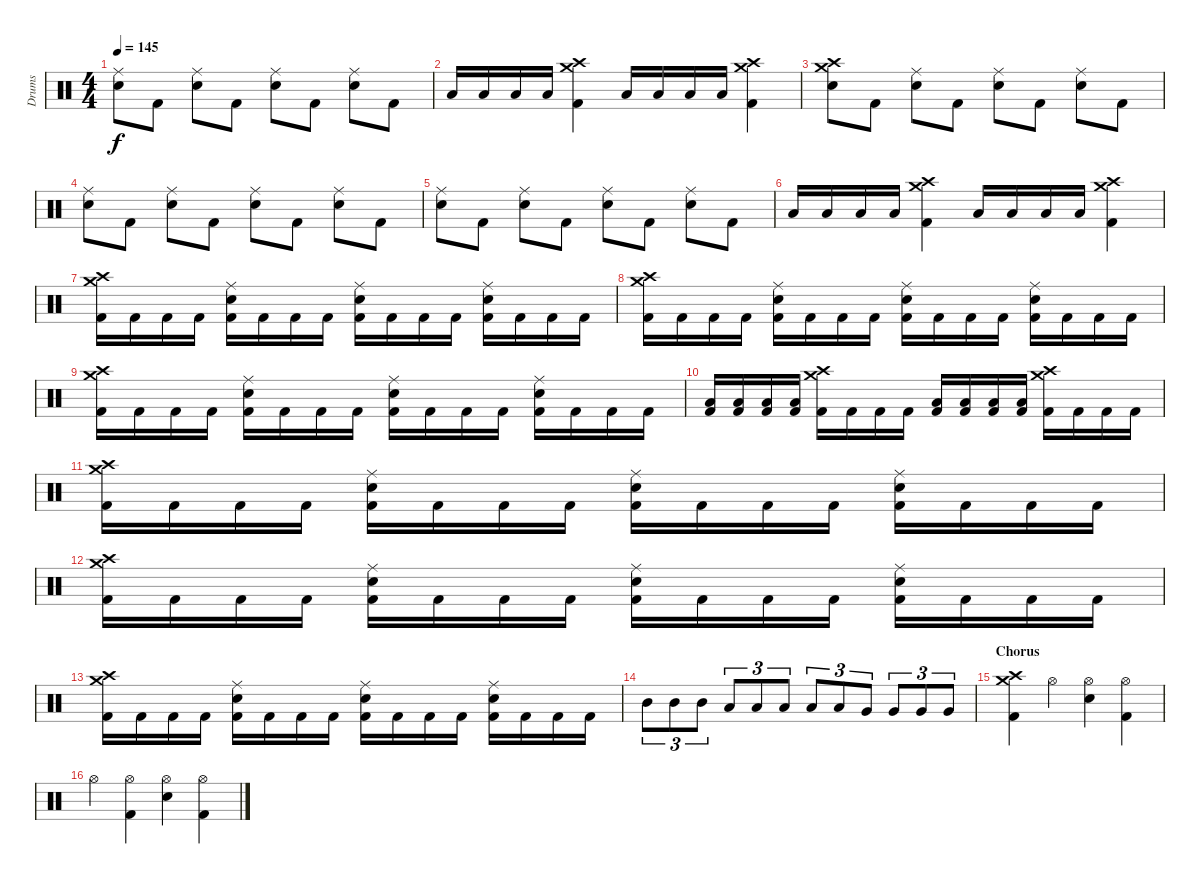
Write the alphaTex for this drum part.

\track ("Drums" "Drums") {instrument percussion}
\staff {score}
\articulation defaults
\ts (4 4)
\tempo 145
\clef neutral
\ks c
("Ride (middle)" "Snare (hit) 2").8{dy f} "Kick (hit) 2".8 ("Ride (middle)" "Snare (hit) 2").8 "Kick (hit) 2".8 ("Ride (middle)" "Snare (hit) 2").8 "Kick (hit) 2".8 ("Ride (middle)" "Snare (hit) 2").8 "Kick (hit) 2".8 |
"Low Tom (hit)".16 "Low Tom (hit)".16 "Low Tom (hit)".16 "Low Tom (hit)".16 ("Crash high (hit)" "Crash medium (hit)" "Kick (hit) 2").4 "Low Tom (hit)".16 "Low Tom (hit)".16 "Low Tom (hit)".16 "Low Tom (hit)".16 ("Crash medium (hit)" "Crash high (hit)" "Kick (hit) 2").4 |
("Crash medium (hit)" "Snare (hit) 2" "Crash high (hit)").8 "Kick (hit) 2".8 ("Ride (middle)" "Snare (hit) 2").8 "Kick (hit) 2".8 ("Ride (middle)" "Snare (hit) 2").8 "Kick (hit) 2".8 ("Ride (middle)" "Snare (hit) 2").8 "Kick (hit) 2".8 |
("Ride (middle)" "Snare (hit) 2").8 "Kick (hit) 2".8 ("Ride (middle)" "Snare (hit) 2").8 "Kick (hit) 2".8 ("Ride (middle)" "Snare (hit) 2").8 "Kick (hit) 2".8 ("Ride (middle)" "Snare (hit) 2").8 "Kick (hit) 2".8 |
("Ride (middle)" "Snare (hit) 2").8 "Kick (hit) 2".8 ("Ride (middle)" "Snare (hit) 2").8 "Kick (hit) 2".8 ("Ride (middle)" "Snare (hit) 2").8 "Kick (hit) 2".8 ("Ride (middle)" "Snare (hit) 2").8 "Kick (hit) 2".8 |
"Low Tom (hit)".16 "Low Tom (hit)".16 "Low Tom (hit)".16 "Low Tom (hit)".16 ("Crash high (hit)" "Crash medium (hit)" "Kick (hit) 2").4 "Low Tom (hit)".16 "Low Tom (hit)".16 "Low Tom (hit)".16 "Low Tom (hit)".16 ("Crash medium (hit)" "Crash high (hit)" "Kick (hit) 2").4 |
("Crash high (hit)" "Crash medium (hit)" "Kick (hit) 2").16 "Kick (hit) 2".16 "Kick (hit) 2".16 "Kick (hit) 2".16 ("Ride (middle)" "Snare (hit) 2" "Kick (hit) 2").16 "Kick (hit) 2".16 "Kick (hit) 2".16 "Kick (hit) 2".16 ("Ride (middle)" "Snare (hit) 2" "Kick (hit) 2").16 "Kick (hit) 2".16 "Kick (hit) 2".16 "Kick (hit) 2".16 ("Ride (middle)" "Snare (hit) 2" "Kick (hit) 2").16 "Kick (hit) 2".16 "Kick (hit) 2".16 "Kick (hit) 2".16 |
("Crash high (hit)" "Crash medium (hit)" "Kick (hit) 2").16 "Kick (hit) 2".16 "Kick (hit) 2".16 "Kick (hit) 2".16 ("Ride (middle)" "Snare (hit) 2" "Kick (hit) 2").16 "Kick (hit) 2".16 "Kick (hit) 2".16 "Kick (hit) 2".16 ("Ride (middle)" "Snare (hit) 2" "Kick (hit) 2").16 "Kick (hit) 2".16 "Kick (hit) 2".16 "Kick (hit) 2".16 ("Ride (middle)" "Snare (hit) 2" "Kick (hit) 2").16 "Kick (hit) 2".16 "Kick (hit) 2".16 "Kick (hit) 2".16 |
("Crash high (hit)" "Crash medium (hit)" "Kick (hit) 2").16 "Kick (hit) 2".16 "Kick (hit) 2".16 "Kick (hit) 2".16 ("Ride (middle)" "Snare (hit) 2" "Kick (hit) 2").16 "Kick (hit) 2".16 "Kick (hit) 2".16 "Kick (hit) 2".16 ("Ride (middle)" "Snare (hit) 2" "Kick (hit) 2").16 "Kick (hit) 2".16 "Kick (hit) 2".16 "Kick (hit) 2".16 ("Ride (middle)" "Snare (hit) 2" "Kick (hit) 2").16 "Kick (hit) 2".16 "Kick (hit) 2".16 "Kick (hit) 2".16 |
("Low Tom (hit)" "Kick (hit) 2").16 ("Low Tom (hit)" "Kick (hit) 2").16 ("Low Tom (hit)" "Kick (hit) 2").16 ("Low Tom (hit)" "Kick (hit) 2").16 ("Crash high (hit)" "Crash medium (hit)" "Kick (hit) 2").16 "Kick (hit) 2".16 "Kick (hit) 2".16 "Kick (hit) 2".16 ("Low Tom (hit)" "Kick (hit) 2").16 ("Low Tom (hit)" "Kick (hit) 2").16 ("Low Tom (hit)" "Kick (hit) 2").16 ("Low Tom (hit)" "Kick (hit) 2").16 ("Crash medium (hit)" "Crash high (hit)" "Kick (hit) 2").16 "Kick (hit) 2".16 "Kick (hit) 2".16 "Kick (hit) 2".16 |
("Crash high (hit)" "Crash medium (hit)" "Kick (hit) 2").16 "Kick (hit) 2".16 "Kick (hit) 2".16 "Kick (hit) 2".16 ("Ride (middle)" "Snare (hit) 2" "Kick (hit) 2").16 "Kick (hit) 2".16 "Kick (hit) 2".16 "Kick (hit) 2".16 ("Ride (middle)" "Snare (hit) 2" "Kick (hit) 2").16 "Kick (hit) 2".16 "Kick (hit) 2".16 "Kick (hit) 2".16 ("Ride (middle)" "Snare (hit) 2" "Kick (hit) 2").16 "Kick (hit) 2".16 "Kick (hit) 2".16 "Kick (hit) 2".16 |
("Crash high (hit)" "Crash medium (hit)" "Kick (hit) 2").16 "Kick (hit) 2".16 "Kick (hit) 2".16 "Kick (hit) 2".16 ("Ride (middle)" "Snare (hit) 2" "Kick (hit) 2").16 "Kick (hit) 2".16 "Kick (hit) 2".16 "Kick (hit) 2".16 ("Ride (middle)" "Snare (hit) 2" "Kick (hit) 2").16 "Kick (hit) 2".16 "Kick (hit) 2".16 "Kick (hit) 2".16 ("Ride (middle)" "Snare (hit) 2" "Kick (hit) 2").16 "Kick (hit) 2".16 "Kick (hit) 2".16 "Kick (hit) 2".16 |
("Crash high (hit)" "Crash medium (hit)" "Kick (hit) 2").16 "Kick (hit) 2".16 "Kick (hit) 2".16 "Kick (hit) 2".16 ("Ride (middle)" "Snare (hit) 2" "Kick (hit) 2").16 "Kick (hit) 2".16 "Kick (hit) 2".16 "Kick (hit) 2".16 ("Ride (middle)" "Snare (hit) 2" "Kick (hit) 2").16 "Kick (hit) 2".16 "Kick (hit) 2".16 "Kick (hit) 2".16 ("Ride (middle)" "Snare (hit) 2" "Kick (hit) 2").16 "Kick (hit) 2".16 "Kick (hit) 2".16 "Kick (hit) 2".16 |
"Mid Tom (hit)".8{tu (3 2)} "Mid Tom (hit)".8{tu (3 2)} "Mid Tom (hit)".8{tu (3 2)} "Low Tom (hit)".8{tu (3 2)} "Low Tom (hit)".8{tu (3 2)} "Low Tom (hit)".8{tu (3 2)} "Low Tom (hit)".8{tu (3 2)} "Low Tom (hit)".8{tu (3 2)} "Very Low Tom (hit)".8{tu (3 2)} "Very Low Tom (hit)".8{tu (3 2)} "Very Low Tom (hit)".8{tu (3 2)} "Very Low Tom (hit)".8{tu (3 2)} |
\section ("" "Chorus")
("Crash medium (hit)" "Crash high (hit)" "Kick (hit) 2").4 "Hi-Hat (open)".4 ("Hi-Hat (open)" "Snare (hit) 2").4 ("Hi-Hat (open)" "Kick (hit) 2").4 |
"Hi-Hat (open)".4 ("Hi-Hat (open)" "Kick (hit) 2").4 ("Hi-Hat (open)" "Snare (hit) 2").4 ("Hi-Hat (open)" "Kick (hit) 2").4
